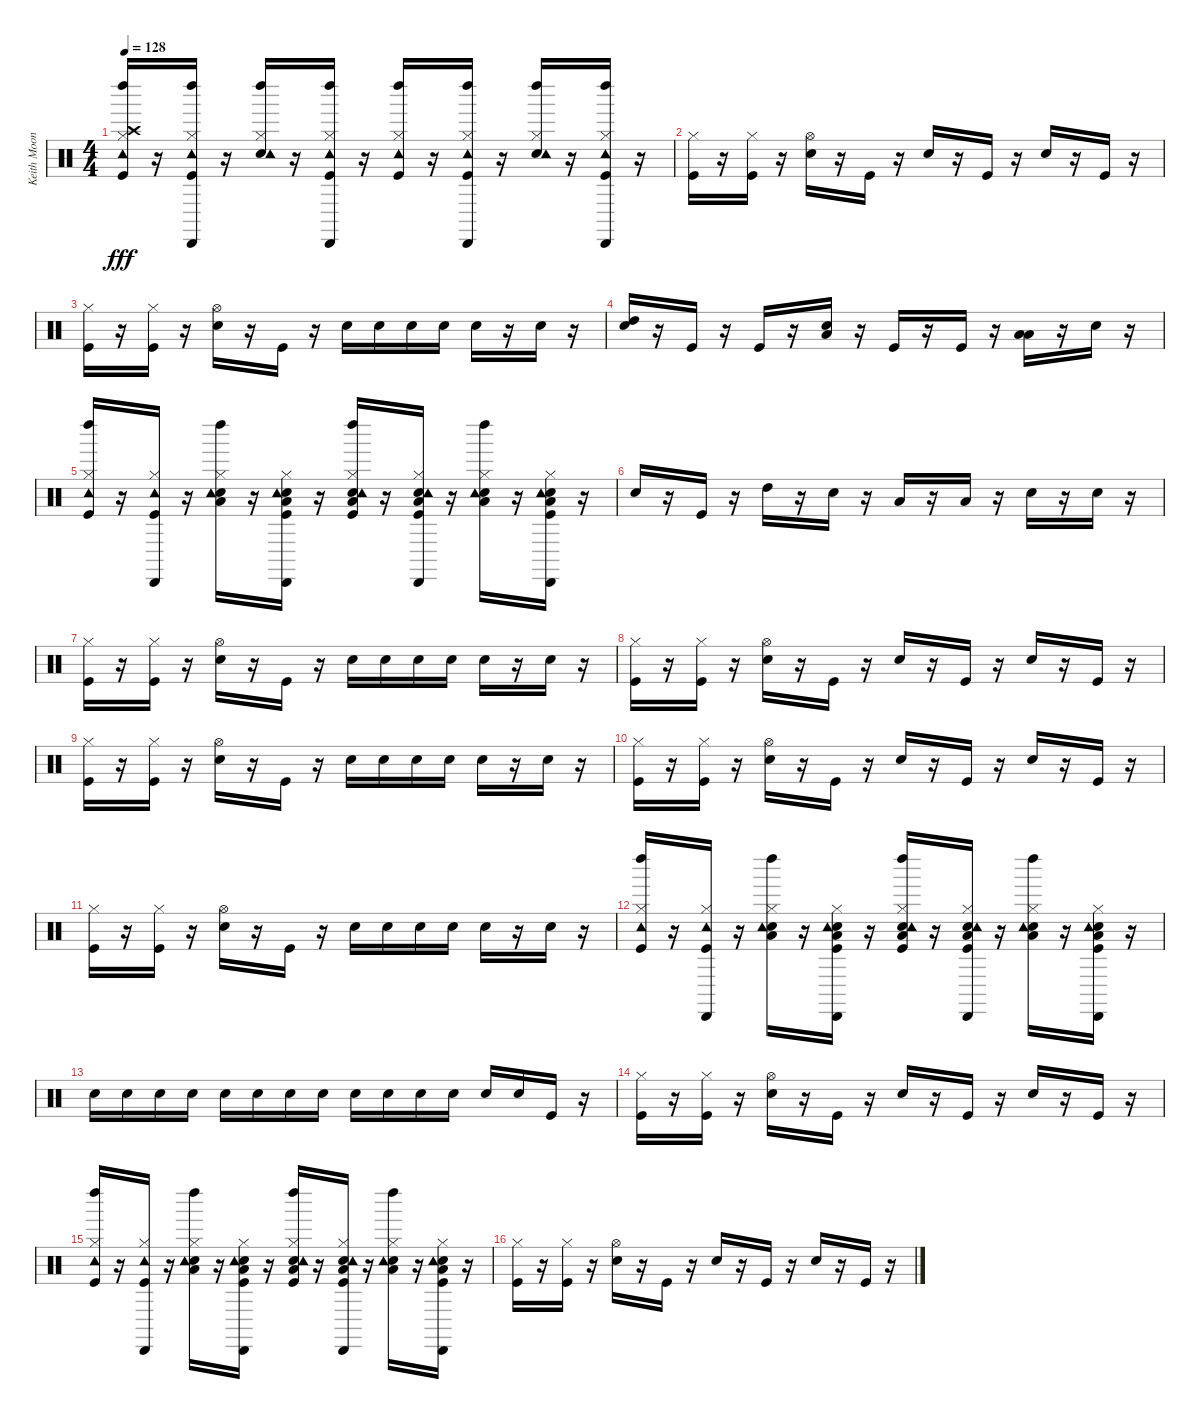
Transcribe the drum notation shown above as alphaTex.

\track ("Keith Moon" "Keith Moon") {instrument percussion}
\staff {score}
\articulation defaults
\ts (4 4)
\tempo 128
\clef neutral
\ks c
("Kick (hit)" "Hi-Hat (closed)" "Crash high (hit)" "Tambourine (hit)" "Left Maraca (hit)").16{dy fff} r.16 ("Kick (hit)" "Hi-Hat (closed)" "Tambourine (hit)" "Left Maraca (hit)" "Cabasa (hit)").16 r.16 ("Snare (hit) 2" "Hi-Hat (closed)" "Tambourine (hit)" "Left Maraca (hit)").16 r.16 ("Kick (hit)" "Hi-Hat (closed)" "Tambourine (hit)" "Left Maraca (hit)" "Cabasa (hit)").16 r.16 ("Kick (hit)" "Hi-Hat (closed)" "Tambourine (hit)" "Left Maraca (hit)").16 r.16 ("Kick (hit)" "Hi-Hat (closed)" "Tambourine (hit)" "Left Maraca (hit)" "Cabasa (hit)").16 r.16 ("Snare (hit) 2" "Hi-Hat (closed)" "Tambourine (hit)" "Left Maraca (hit)").16 r.16 ("Kick (hit)" "Hi-Hat (closed)" "Tambourine (hit)" "Left Maraca (hit)" "Cabasa (hit)").16 r.16 |
("Kick (hit)" "Hi-Hat (closed)").16 r.16 ("Kick (hit)" "Hi-Hat (closed)").16 r.16 ("Snare (hit) 2" "Hi-Hat (open)").16 r.16 "Kick (hit)".16 r.16 "Snare (hit) 2".16 r.16 "Kick (hit)".16 r.16 "Snare (hit) 2".16 r.16 "Kick (hit)".16 r.16 |
("Kick (hit)" "Hi-Hat (closed)").16 r.16 ("Kick (hit)" "Hi-Hat (closed)").16 r.16 ("Snare (hit) 2" "Hi-Hat (open)").16 r.16 "Kick (hit)".16 r.16 "Snare (hit) 2".16 "Snare (hit) 2".16 "Snare (hit) 2".16 "Snare (hit) 2".16 "Snare (hit) 2".16 r.16 "Snare (hit) 2".16 r.16 |
("Snare (hit) 2" "High Tom (hit)").16 r.16 "Kick (hit)".16 r.16 "Kick (hit)".16 r.16 ("Snare (hit) 2" "Low Tom (hit)").16 r.16 "Kick (hit)".16 r.16 "Kick (hit)".16 r.16 ("Low Floor Tom (hit)" "Low Tom (hit)").16 r.16 "Snare (hit) 2".16 r.16 |
("Kick (hit)" "Hi-Hat (closed)" "Tambourine (hit)" "Left Maraca (hit)").16 r.16 ("Kick (hit)" "Hi-Hat (closed)" "Tambourine (hit)" "Cabasa (hit)").16 r.16 ("Snare (hit) 2" "Hi-Hat (closed)" "Low Floor Tom (hit)" "Tambourine (hit)" "Left Maraca (hit)").16 r.16 ("Kick (hit)" "Snare (hit) 2" "Hi-Hat (closed)" "Low Floor Tom (hit)" "Tambourine (hit)" "Cabasa (hit)").16 r.16 ("Kick (hit)" "Snare (hit) 2" "Hi-Hat (closed)" "Low Floor Tom (hit)" "Tambourine (hit)" "Left Maraca (hit)").16 r.16 ("Kick (hit)" "Snare (hit) 2" "Hi-Hat (closed)" "Low Floor Tom (hit)" "Tambourine (hit)" "Cabasa (hit)").16 r.16 ("Snare (hit) 2" "Hi-Hat (closed)" "Low Floor Tom (hit)" "Tambourine (hit)" "Left Maraca (hit)").16 r.16 ("Kick (hit)" "Snare (hit) 2" "Hi-Hat (closed)" "Low Floor Tom (hit)" "Tambourine (hit)" "Cabasa (hit)").16 r.16 |
"Snare (hit) 2".16 r.16 "Kick (hit)".16 r.16 "High Tom (hit)".16 r.16 "Snare (hit) 2".16 r.16 "Low Tom (hit)".16 r.16 "Low Tom (hit)".16 r.16 "Snare (hit) 2".16 r.16 "Snare (hit) 2".16 r.16 |
("Kick (hit)" "Hi-Hat (closed)").16 r.16 ("Kick (hit)" "Hi-Hat (closed)").16 r.16 ("Snare (hit) 2" "Hi-Hat (open)").16 r.16 "Kick (hit)".16 r.16 "Snare (hit) 2".16 "Snare (hit) 2".16 "Snare (hit) 2".16 "Snare (hit) 2".16 "Snare (hit) 2".16 r.16 "Snare (hit) 2".16 r.16 |
("Kick (hit)" "Hi-Hat (closed)").16 r.16 ("Kick (hit)" "Hi-Hat (closed)").16 r.16 ("Snare (hit) 2" "Hi-Hat (open)").16 r.16 "Kick (hit)".16 r.16 "Snare (hit) 2".16 r.16 "Kick (hit)".16 r.16 "Snare (hit) 2".16 r.16 "Kick (hit)".16 r.16 |
("Kick (hit)" "Hi-Hat (closed)").16 r.16 ("Kick (hit)" "Hi-Hat (closed)").16 r.16 ("Snare (hit) 2" "Hi-Hat (open)").16 r.16 "Kick (hit)".16 r.16 "Snare (hit) 2".16 "Snare (hit) 2".16 "Snare (hit) 2".16 "Snare (hit) 2".16 "Snare (hit) 2".16 r.16 "Snare (hit) 2".16 r.16 |
("Kick (hit)" "Hi-Hat (closed)").16 r.16 ("Kick (hit)" "Hi-Hat (closed)").16 r.16 ("Snare (hit) 2" "Hi-Hat (open)").16 r.16 "Kick (hit)".16 r.16 "Snare (hit) 2".16 r.16 "Kick (hit)".16 r.16 "Snare (hit) 2".16 r.16 "Kick (hit)".16 r.16 |
("Kick (hit)" "Hi-Hat (closed)").16 r.16 ("Kick (hit)" "Hi-Hat (closed)").16 r.16 ("Snare (hit) 2" "Hi-Hat (open)").16 r.16 "Kick (hit)".16 r.16 "Snare (hit) 2".16 "Snare (hit) 2".16 "Snare (hit) 2".16 "Snare (hit) 2".16 "Snare (hit) 2".16 r.16 "Snare (hit) 2".16 r.16 |
("Kick (hit)" "Hi-Hat (closed)" "Tambourine (hit)" "Left Maraca (hit)").16 r.16 ("Kick (hit)" "Hi-Hat (closed)" "Tambourine (hit)" "Cabasa (hit)").16 r.16 ("Snare (hit) 2" "Hi-Hat (closed)" "Low Floor Tom (hit)" "Tambourine (hit)" "Left Maraca (hit)").16 r.16 ("Kick (hit)" "Snare (hit) 2" "Hi-Hat (closed)" "Low Floor Tom (hit)" "Tambourine (hit)" "Cabasa (hit)").16 r.16 ("Kick (hit)" "Snare (hit) 2" "Hi-Hat (closed)" "Low Floor Tom (hit)" "Tambourine (hit)" "Left Maraca (hit)").16 r.16 ("Kick (hit)" "Snare (hit) 2" "Hi-Hat (closed)" "Low Floor Tom (hit)" "Tambourine (hit)" "Cabasa (hit)").16 r.16 ("Snare (hit) 2" "Hi-Hat (closed)" "Low Floor Tom (hit)" "Tambourine (hit)" "Left Maraca (hit)").16 r.16 ("Kick (hit)" "Snare (hit) 2" "Hi-Hat (closed)" "Low Floor Tom (hit)" "Tambourine (hit)" "Cabasa (hit)").16 r.16 |
"Snare (hit) 2".16 "Snare (hit) 2".16 "Snare (hit) 2".16 "Snare (hit) 2".16 "Snare (hit) 2".16 "Snare (hit) 2".16 "Snare (hit) 2".16 "Snare (hit) 2".16 "Snare (hit) 2".16 "Snare (hit) 2".16 "Snare (hit) 2".16 "Snare (hit) 2".16 "Snare (hit) 2".16 "Snare (hit) 2".16 "Kick (hit)".16 r.16 |
("Kick (hit)" "Hi-Hat (closed)").16 r.16 ("Kick (hit)" "Hi-Hat (closed)").16 r.16 ("Snare (hit) 2" "Hi-Hat (open)").16 r.16 "Kick (hit)".16 r.16 "Snare (hit) 2".16 r.16 "Kick (hit)".16 r.16 "Snare (hit) 2".16 r.16 "Kick (hit)".16 r.16 |
("Kick (hit)" "Hi-Hat (closed)" "Tambourine (hit)" "Left Maraca (hit)").16 r.16 ("Kick (hit)" "Hi-Hat (closed)" "Tambourine (hit)" "Cabasa (hit)").16 r.16 ("Snare (hit) 2" "Hi-Hat (closed)" "Low Floor Tom (hit)" "Tambourine (hit)" "Left Maraca (hit)").16 r.16 ("Kick (hit)" "Snare (hit) 2" "Hi-Hat (closed)" "Low Floor Tom (hit)" "Tambourine (hit)" "Cabasa (hit)").16 r.16 ("Kick (hit)" "Snare (hit) 2" "Hi-Hat (closed)" "Low Floor Tom (hit)" "Tambourine (hit)" "Left Maraca (hit)").16 r.16 ("Kick (hit)" "Snare (hit) 2" "Hi-Hat (closed)" "Low Floor Tom (hit)" "Tambourine (hit)" "Cabasa (hit)").16 r.16 ("Snare (hit) 2" "Hi-Hat (closed)" "Low Floor Tom (hit)" "Tambourine (hit)" "Left Maraca (hit)").16 r.16 ("Kick (hit)" "Snare (hit) 2" "Hi-Hat (closed)" "Low Floor Tom (hit)" "Tambourine (hit)" "Cabasa (hit)").16 r.16 |
("Kick (hit)" "Hi-Hat (closed)").16 r.16 ("Kick (hit)" "Hi-Hat (closed)").16 r.16 ("Snare (hit) 2" "Hi-Hat (open)").16 r.16 "Kick (hit)".16 r.16 "Snare (hit) 2".16 r.16 "Kick (hit)".16 r.16 "Snare (hit) 2".16 r.16 "Kick (hit)".16 r.16
